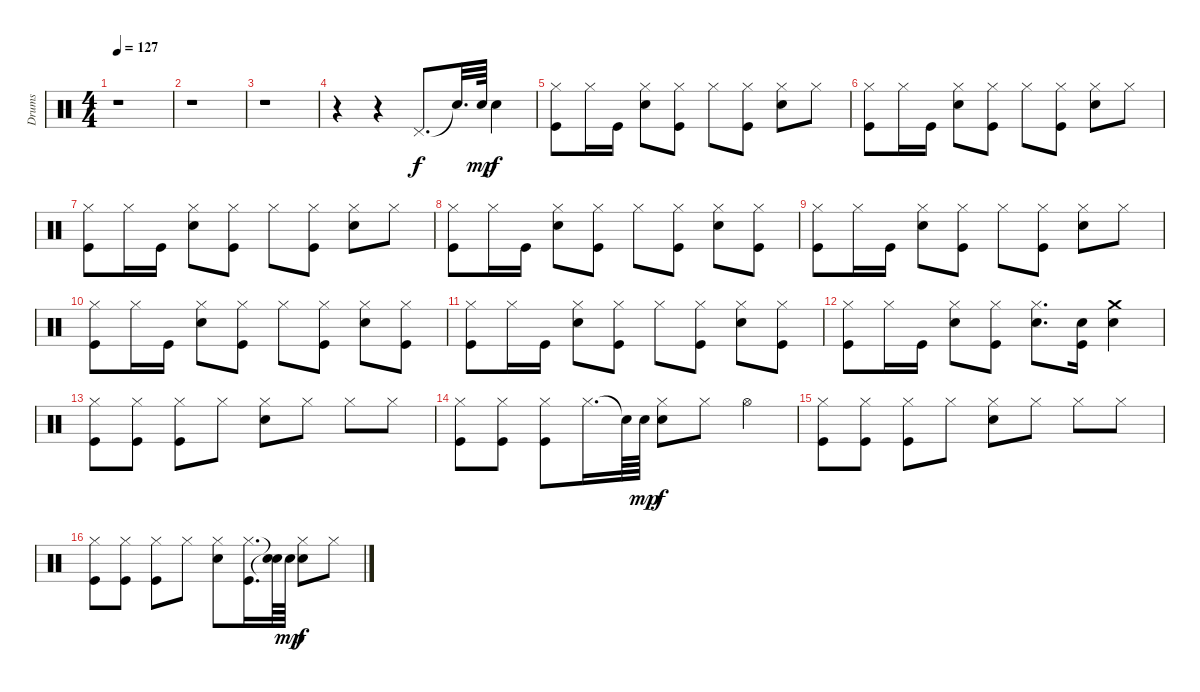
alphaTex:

\track ("Drums" "Drums") {instrument percussion}
\staff {score}
\articulation defaults
\ts (4 4)
\tempo 127
\clef neutral
\ks c
r.1{dy f} |
r.1 |
r.1 |
r.4 r.4 "Pedal Hi-Hat (hit)".8{d} "Snare (hit)"{t}.32{d} "Electric Snare (hit)".64{dy mp} "Electric Snare (hit)".4{dy f} |
("Hi-Hat (closed)" "Kick (hit)").8 "Hi-Hat (closed)".16 "Kick (hit)".16 ("Electric Snare (hit)" "Hi-Hat (closed)").8 ("Hi-Hat (closed)" "Kick (hit)").8 "Hi-Hat (closed)".8 ("Hi-Hat (closed)" "Kick (hit)").8 ("Electric Snare (hit)" "Hi-Hat (closed)").8 "Hi-Hat (closed)".8 |
("Hi-Hat (closed)" "Kick (hit)").8 "Hi-Hat (closed)".16 "Kick (hit)".16 ("Electric Snare (hit)" "Hi-Hat (closed)").8 ("Hi-Hat (closed)" "Kick (hit)").8 "Hi-Hat (closed)".8 ("Hi-Hat (closed)" "Kick (hit)").8 ("Electric Snare (hit)" "Hi-Hat (closed)").8 "Hi-Hat (closed)".8 |
("Hi-Hat (closed)" "Kick (hit)").8 "Hi-Hat (closed)".16 "Kick (hit)".16 ("Electric Snare (hit)" "Hi-Hat (closed)").8 ("Hi-Hat (closed)" "Kick (hit)").8 "Hi-Hat (closed)".8 ("Hi-Hat (closed)" "Kick (hit)").8 ("Electric Snare (hit)" "Hi-Hat (closed)").8 "Hi-Hat (closed)".8 |
("Hi-Hat (closed)" "Kick (hit)").8 "Hi-Hat (closed)".16 "Kick (hit)".16 ("Electric Snare (hit)" "Hi-Hat (closed)").8 ("Hi-Hat (closed)" "Kick (hit)").8 "Hi-Hat (closed)".8 ("Hi-Hat (closed)" "Kick (hit)").8 ("Electric Snare (hit)" "Hi-Hat (closed)").8 ("Hi-Hat (closed)" "Kick (hit)").8 |
("Hi-Hat (closed)" "Kick (hit)").8 "Hi-Hat (closed)".16 "Kick (hit)".16 ("Electric Snare (hit)" "Hi-Hat (closed)").8 ("Hi-Hat (closed)" "Kick (hit)").8 "Hi-Hat (closed)".8 ("Hi-Hat (closed)" "Kick (hit)").8 ("Electric Snare (hit)" "Hi-Hat (closed)").8 "Hi-Hat (closed)".8 |
("Hi-Hat (closed)" "Kick (hit)").8 "Hi-Hat (closed)".16 "Kick (hit)".16 ("Electric Snare (hit)" "Hi-Hat (closed)").8 ("Hi-Hat (closed)" "Kick (hit)").8 "Hi-Hat (closed)".8 ("Hi-Hat (closed)" "Kick (hit)").8 ("Electric Snare (hit)" "Hi-Hat (closed)").8 ("Hi-Hat (closed)" "Kick (hit)").8 |
("Hi-Hat (closed)" "Kick (hit)").8 "Hi-Hat (closed)".16 "Kick (hit)".16 ("Electric Snare (hit)" "Hi-Hat (closed)").8 ("Hi-Hat (closed)" "Kick (hit)").8 "Hi-Hat (closed)".8 ("Hi-Hat (closed)" "Kick (hit)").8 ("Electric Snare (hit)" "Hi-Hat (closed)").8 ("Hi-Hat (closed)" "Kick (hit)").8 |
("Hi-Hat (closed)" "Kick (hit)").8 "Hi-Hat (closed)".16 "Kick (hit)".16 ("Electric Snare (hit)" "Hi-Hat (closed)").8 ("Hi-Hat (closed)" "Kick (hit)").8 ("Electric Snare (hit)" "Hi-Hat (closed)").8{d} ("Electric Snare (hit)" "Kick (hit)").16 ("Electric Snare (hit)" "Crash medium (hit)").4 |
("Hi-Hat (closed)" "Kick (hit)").8 ("Hi-Hat (closed)" "Kick (hit)").8 ("Hi-Hat (closed)" "Kick (hit)").8 "Hi-Hat (closed)".8 ("Electric Snare (hit)" "Hi-Hat (closed)").8 "Hi-Hat (closed)".8 "Hi-Hat (closed)".8 "Hi-Hat (closed)".8 |
("Hi-Hat (closed)" "Kick (hit)").8 ("Hi-Hat (closed)" "Kick (hit)").8 ("Hi-Hat (closed)" "Kick (hit)").8 "Hi-Hat (closed)".16{d} "Snare (hit)"{t}.64 "Electric Snare (hit)".64{dy mp} ("Electric Snare (hit)" "Hi-Hat (closed)").8{dy f} "Hi-Hat (closed)".8 "Hi-Hat (open)".4 |
("Hi-Hat (closed)" "Kick (hit)").8 ("Hi-Hat (closed)" "Kick (hit)").8 ("Hi-Hat (closed)" "Kick (hit)").8 "Hi-Hat (closed)".8 ("Electric Snare (hit)" "Hi-Hat (closed)").8 "Hi-Hat (closed)".8 "Hi-Hat (closed)".8 "Hi-Hat (closed)".8 |
("Hi-Hat (closed)" "Kick (hit)").8 ("Hi-Hat (closed)" "Kick (hit)").8 ("Hi-Hat (closed)" "Kick (hit)").8 "Hi-Hat (closed)".8 ("Electric Snare (hit)" "Hi-Hat (closed)").8 ("Hi-Hat (closed)" "Kick (hit)").16{d} ("Snare (hit)"{t} "Snare (hit)"{t}).64 "Electric Snare (hit)".64{dy mp} ("Electric Snare (hit)" "Hi-Hat (closed)").8{dy f} "Hi-Hat (closed)".8
